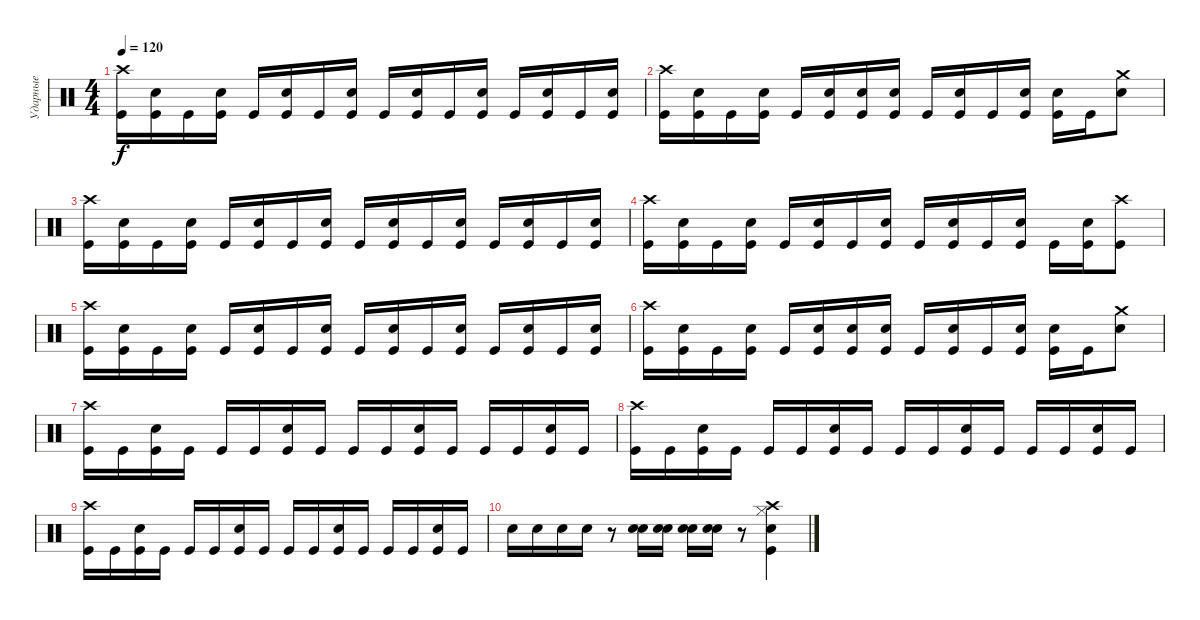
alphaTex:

\track ("Ударные" "Ударные") {instrument percussion}
\staff {score}
\articulation defaults
\ts (4 4)
\tempo 120
\clef neutral
\ks c
("Crash high (hit)" "Kick (hit)").16{dy f} ("Electric Snare (hit)" "Kick (hit)").16 "Kick (hit)".16 ("Electric Snare (hit)" "Kick (hit)").16 "Kick (hit)".16 ("Electric Snare (hit)" "Kick (hit)").16 "Kick (hit)".16 ("Electric Snare (hit)" "Kick (hit)").16 "Kick (hit)".16 ("Electric Snare (hit)" "Kick (hit)").16 "Kick (hit)".16 ("Electric Snare (hit)" "Kick (hit)").16 "Kick (hit)".16 ("Electric Snare (hit)" "Kick (hit)").16 "Kick (hit)".16 ("Electric Snare (hit)" "Kick (hit)").16 |
("Crash high (hit)" "Kick (hit)").16 ("Electric Snare (hit)" "Kick (hit)").16 "Kick (hit)".16 ("Electric Snare (hit)" "Kick (hit)").16 "Kick (hit)".16 ("Electric Snare (hit)" "Kick (hit)").16 ("Electric Snare (hit)" "Kick (hit)").16 ("Electric Snare (hit)" "Kick (hit)").16 "Kick (hit)".16 ("Electric Snare (hit)" "Kick (hit)").16 "Kick (hit)".16 ("Electric Snare (hit)" "Kick (hit)").16 ("Electric Snare (hit)" "Kick (hit)").16 "Kick (hit)".16 ("Crash medium (hit)" "Electric Snare (hit)").8 |
("Crash high (hit)" "Kick (hit)").16 ("Electric Snare (hit)" "Kick (hit)").16 "Kick (hit)".16 ("Electric Snare (hit)" "Kick (hit)").16 "Kick (hit)".16 ("Electric Snare (hit)" "Kick (hit)").16 "Kick (hit)".16 ("Electric Snare (hit)" "Kick (hit)").16 "Kick (hit)".16 ("Electric Snare (hit)" "Kick (hit)").16 "Kick (hit)".16 ("Electric Snare (hit)" "Kick (hit)").16 "Kick (hit)".16 ("Electric Snare (hit)" "Kick (hit)").16 "Kick (hit)".16 ("Electric Snare (hit)" "Kick (hit)").16 |
("Crash high (hit)" "Kick (hit)").16 ("Electric Snare (hit)" "Kick (hit)").16 "Kick (hit)".16 ("Electric Snare (hit)" "Kick (hit)").16 "Kick (hit)".16 ("Electric Snare (hit)" "Kick (hit)").16 "Kick (hit)".16 ("Electric Snare (hit)" "Kick (hit)").16 "Kick (hit)".16 ("Electric Snare (hit)" "Kick (hit)").16 "Kick (hit)".16 ("Electric Snare (hit)" "Kick (hit)").16 "Kick (hit)".16 ("Electric Snare (hit)" "Kick (hit)").16 ("Crash high (hit)" "Kick (hit)").8 |
("Crash high (hit)" "Kick (hit)").16 ("Electric Snare (hit)" "Kick (hit)").16 "Kick (hit)".16 ("Electric Snare (hit)" "Kick (hit)").16 "Kick (hit)".16 ("Electric Snare (hit)" "Kick (hit)").16 "Kick (hit)".16 ("Electric Snare (hit)" "Kick (hit)").16 "Kick (hit)".16 ("Electric Snare (hit)" "Kick (hit)").16 "Kick (hit)".16 ("Electric Snare (hit)" "Kick (hit)").16 "Kick (hit)".16 ("Electric Snare (hit)" "Kick (hit)").16 "Kick (hit)".16 ("Electric Snare (hit)" "Kick (hit)").16 |
("Crash high (hit)" "Kick (hit)").16 ("Electric Snare (hit)" "Kick (hit)").16 "Kick (hit)".16 ("Electric Snare (hit)" "Kick (hit)").16 "Kick (hit)".16 ("Electric Snare (hit)" "Kick (hit)").16 ("Electric Snare (hit)" "Kick (hit)").16 ("Electric Snare (hit)" "Kick (hit)").16 "Kick (hit)".16 ("Electric Snare (hit)" "Kick (hit)").16 "Kick (hit)".16 ("Electric Snare (hit)" "Kick (hit)").16 ("Electric Snare (hit)" "Kick (hit)").16 "Kick (hit)".16 ("Crash medium (hit)" "Electric Snare (hit)").8 |
("Crash high (hit)" "Kick (hit)").16 "Kick (hit)".16 ("Electric Snare (hit)" "Kick (hit)").16 "Kick (hit)".16 "Kick (hit)".16 "Kick (hit)".16 ("Electric Snare (hit)" "Kick (hit)").16 "Kick (hit)".16 "Kick (hit)".16 "Kick (hit)".16 ("Electric Snare (hit)" "Kick (hit)").16 "Kick (hit)".16 "Kick (hit)".16 "Kick (hit)".16 ("Electric Snare (hit)" "Kick (hit)").16 "Kick (hit)".16 |
("Crash high (hit)" "Kick (hit)").16 "Kick (hit)".16 ("Electric Snare (hit)" "Kick (hit)").16 "Kick (hit)".16 "Kick (hit)".16 "Kick (hit)".16 ("Electric Snare (hit)" "Kick (hit)").16 "Kick (hit)".16 "Kick (hit)".16 "Kick (hit)".16 ("Electric Snare (hit)" "Kick (hit)").16 "Kick (hit)".16 "Kick (hit)".16 "Kick (hit)".16 ("Electric Snare (hit)" "Kick (hit)").16 "Kick (hit)".16 |
("Crash high (hit)" "Kick (hit)").16 "Kick (hit)".16 ("Electric Snare (hit)" "Kick (hit)").16 "Kick (hit)".16 "Kick (hit)".16 "Kick (hit)".16 ("Electric Snare (hit)" "Kick (hit)").16 "Kick (hit)".16 "Kick (hit)".16 "Kick (hit)".16 ("Electric Snare (hit)" "Kick (hit)").16 "Kick (hit)".16 "Kick (hit)".16 "Kick (hit)".16 ("Electric Snare (hit)" "Kick (hit)").16 "Kick (hit)".16 |
"Electric Snare (hit)".16 "Electric Snare (hit)".16 "Electric Snare (hit)".16 "Electric Snare (hit)".16 r.8 ("Electric Snare (hit)" "Electric Snare (hit)").16 ("Electric Snare (hit)" "Electric Snare (hit)").16 ("Electric Snare (hit)" "Electric Snare (hit)").16 ("Electric Snare (hit)" "Electric Snare (hit)").16 r.8 ("Crash high (hit)" "Hi-Hat (closed)" "Electric Snare (hit)" "Kick (hit)").4
